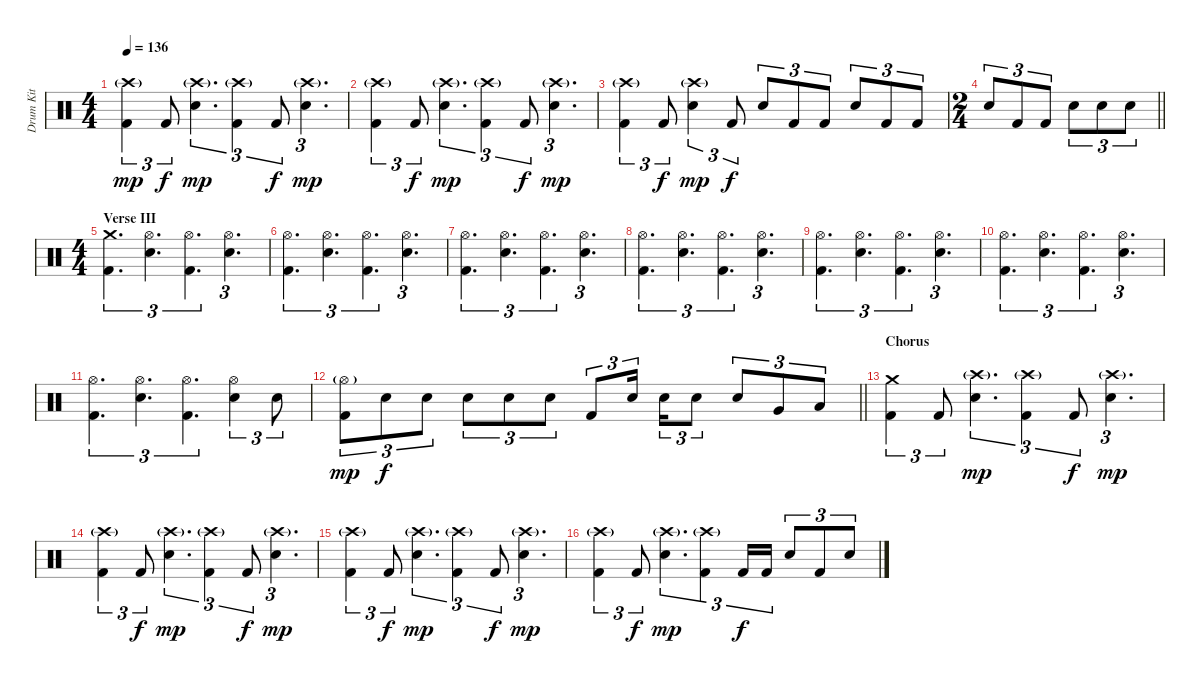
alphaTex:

\track ("Drum Kit" "Drum Kit") {instrument percussion}
\staff {score}
\articulation defaults
\ts (4 4)
\tempo 136
\clef neutral
\ks c
("Crash high (hit)"{g} "Kick (hit) 2").4{tu (3 2) dy mp} "Kick (hit) 2".8{tu (3 2) dy f} ("Crash high (hit)"{g} "Electric Snare (hit)").4{d tu (3 2) dy mp} ("Crash high (hit)"{g} "Kick (hit) 2").4{tu (3 2)} "Kick (hit) 2".8{tu (3 2) dy f} ("Crash high (hit)"{g} "Electric Snare (hit)").4{d tu (3 2) dy mp} |
("Crash high (hit)"{g} "Kick (hit) 2").4{tu (3 2)} "Kick (hit) 2".8{tu (3 2) dy f} ("Crash high (hit)"{g} "Electric Snare (hit)").4{d tu (3 2) dy mp} ("Crash high (hit)"{g} "Kick (hit) 2").4{tu (3 2)} "Kick (hit) 2".8{tu (3 2) dy f} ("Crash high (hit)"{g} "Electric Snare (hit)").4{d tu (3 2) dy mp} |
("Crash high (hit)"{g} "Kick (hit) 2").4{tu (3 2)} "Kick (hit) 2".8{tu (3 2) dy f} ("Crash high (hit)"{g} "Electric Snare (hit)").4{tu (3 2) dy mp} "Kick (hit) 2".8{tu (3 2) dy f} "Electric Snare (hit)".8{tu (3 2)} "Kick (hit) 2".8{tu (3 2)} "Kick (hit) 2".8{tu (3 2)} "Electric Snare (hit)".8{tu (3 2)} "Kick (hit) 2".8{tu (3 2)} "Kick (hit) 2".8{tu (3 2)} |
\ts (2 4)
\barLineRight lightlight "Electric Snare (hit)".8{tu (3 2)} "Kick (hit) 2".8{tu (3 2)} "Kick (hit) 2".8{tu (3 2)} "Electric Snare (hit)".8{tu (3 2)} "Electric Snare (hit)".8{tu (3 2)} "Electric Snare (hit)".8{tu (3 2)}
|
\ts (4 4)
\section ("" "Verse III")
("Crash medium (hit)" "Kick (hit) 2").4{d tu (3 2)} ("Hi-Hat (open)" "Electric Snare (hit)").4{d tu (3 2)} ("Hi-Hat (open)" "Kick (hit) 2").4{d tu (3 2)} ("Hi-Hat (open)" "Electric Snare (hit)").4{d tu (3 2)} |
("Hi-Hat (open)" "Kick (hit) 2").4{d tu (3 2)} ("Hi-Hat (open)" "Electric Snare (hit)").4{d tu (3 2)} ("Hi-Hat (open)" "Kick (hit) 2").4{d tu (3 2)} ("Hi-Hat (open)" "Electric Snare (hit)").4{d tu (3 2)} |
("Hi-Hat (open)" "Kick (hit) 2").4{d tu (3 2)} ("Hi-Hat (open)" "Electric Snare (hit)").4{d tu (3 2)} ("Hi-Hat (open)" "Kick (hit) 2").4{d tu (3 2)} ("Hi-Hat (open)" "Electric Snare (hit)").4{d tu (3 2)} |
("Hi-Hat (open)" "Kick (hit) 2").4{d tu (3 2)} ("Hi-Hat (open)" "Electric Snare (hit)").4{d tu (3 2)} ("Hi-Hat (open)" "Kick (hit) 2").4{d tu (3 2)} ("Hi-Hat (open)" "Electric Snare (hit)").4{d tu (3 2)} |
("Hi-Hat (open)" "Kick (hit) 2").4{d tu (3 2)} ("Hi-Hat (open)" "Electric Snare (hit)").4{d tu (3 2)} ("Hi-Hat (open)" "Kick (hit) 2").4{d tu (3 2)} ("Hi-Hat (open)" "Electric Snare (hit)").4{d tu (3 2)} |
("Hi-Hat (open)" "Kick (hit) 2").4{d tu (3 2)} ("Hi-Hat (open)" "Electric Snare (hit)").4{d tu (3 2)} ("Hi-Hat (open)" "Kick (hit) 2").4{d tu (3 2)} ("Hi-Hat (open)" "Electric Snare (hit)").4{d tu (3 2)} |
("Hi-Hat (open)" "Kick (hit) 2").4{d tu (3 2)} ("Hi-Hat (open)" "Electric Snare (hit)").4{d tu (3 2)} ("Hi-Hat (open)" "Kick (hit) 2").4{d tu (3 2)} ("Hi-Hat (open)" "Electric Snare (hit)").4{tu (3 2)} "Electric Snare (hit)".8{tu (3 2)} |
\barLineRight lightlight
("Hi-Hat (open)"{g} "Kick (hit) 2").8{tu (3 2) dy mp} "Electric Snare (hit)".8{tu (3 2) dy f} "Electric Snare (hit)".8{tu (3 2)} "Electric Snare (hit)".8{tu (3 2)} "Electric Snare (hit)".8{tu (3 2)} "Electric Snare (hit)".8{tu (3 2)} "Kick (hit) 2".8{tu (3 2)} "Electric Snare (hit)".16{tu (3 2) beam splitsecondary} "Electric Snare (hit)".16{tu (3 2)} "Electric Snare (hit)".8{tu (3 2)} "Electric Snare (hit)".8{tu (3 2)} "Very Low Tom (hit)".8{tu (3 2)} "Low Floor Tom (hit)".8{tu (3 2)} |
\section ("" "Chorus")
("Crash medium (hit)" "Kick (hit) 2").4{tu (3 2)} "Kick (hit) 2".8{tu (3 2)} ("Crash high (hit)"{g} "Electric Snare (hit)").4{d tu (3 2) dy mp} ("Crash high (hit)"{g} "Kick (hit) 2").4{tu (3 2)} "Kick (hit) 2".8{tu (3 2) dy f} ("Crash high (hit)"{g} "Electric Snare (hit)").4{d tu (3 2) dy mp} |
("Crash high (hit)"{g} "Kick (hit) 2").4{tu (3 2)} "Kick (hit) 2".8{tu (3 2) dy f} ("Crash high (hit)"{g} "Electric Snare (hit)").4{d tu (3 2) dy mp} ("Crash high (hit)"{g} "Kick (hit) 2").4{tu (3 2)} "Kick (hit) 2".8{tu (3 2) dy f} ("Crash high (hit)"{g} "Electric Snare (hit)").4{d tu (3 2) dy mp} |
("Crash high (hit)"{g} "Kick (hit) 2").4{tu (3 2)} "Kick (hit) 2".8{tu (3 2) dy f} ("Crash high (hit)"{g} "Electric Snare (hit)").4{d tu (3 2) dy mp} ("Crash high (hit)"{g} "Kick (hit) 2").4{tu (3 2)} "Kick (hit) 2".8{tu (3 2) dy f} ("Crash high (hit)"{g} "Electric Snare (hit)").4{d tu (3 2) dy mp} |
("Crash high (hit)"{g} "Kick (hit) 2").4{tu (3 2)} "Kick (hit) 2".8{tu (3 2) dy f} ("Crash high (hit)"{g} "Electric Snare (hit)").4{d tu (3 2) dy mp} ("Crash high (hit)"{g} "Kick (hit) 2").4{tu (3 2)} "Kick (hit) 2".16{tu (3 2) dy f} "Kick (hit) 2".16{tu (3 2)} "Electric Snare (hit)".8{tu (3 2)} "Kick (hit) 2".8{tu (3 2)} "Electric Snare (hit)".8{tu (3 2)}
